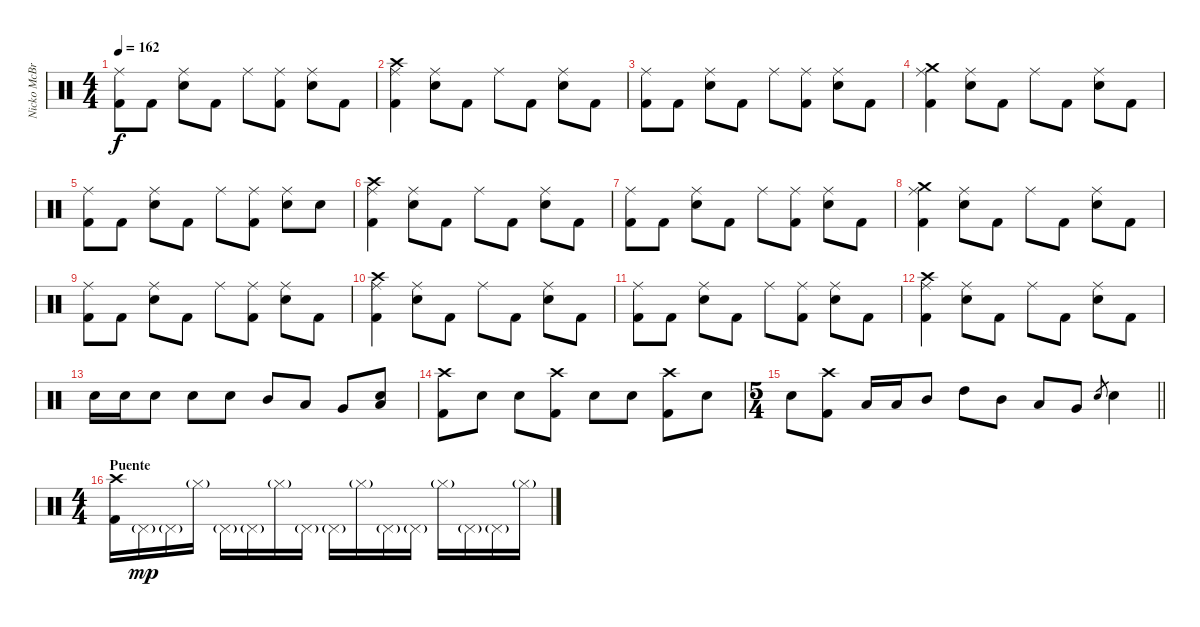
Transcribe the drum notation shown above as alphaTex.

\track ("Nicko McBrain" "Nicko McBr") {instrument percussion}
\staff {score}
\articulation defaults
\ts (4 4)
\tempo 162
\clef neutral
\ks c
("Kick (hit) 2" "Ride (middle)").8{dy f} "Kick (hit) 2".8 ("Electric Snare (hit)" "Ride (middle)").8 "Kick (hit) 2".8 "Ride (middle)".8 ("Kick (hit) 2" "Ride (middle)").8 ("Electric Snare (hit)" "Ride (middle)").8 "Kick (hit) 2".8 |
("Kick (hit) 2" "Ride (middle)" "Crash high (hit)").4 ("Electric Snare (hit)" "Ride (middle)").8 "Kick (hit) 2".8 "Ride (middle)".8 "Kick (hit) 2".8 ("Electric Snare (hit)" "Ride (middle)").8 "Kick (hit) 2".8 |
("Kick (hit) 2" "Ride (middle)").8 "Kick (hit) 2".8 ("Electric Snare (hit)" "Ride (middle)").8 "Kick (hit) 2".8 "Ride (middle)".8 ("Kick (hit) 2" "Ride (middle)").8 ("Electric Snare (hit)" "Ride (middle)").8 "Kick (hit) 2".8 |
("Kick (hit) 2" "Ride (middle)" "Crash medium (hit)").4 ("Electric Snare (hit)" "Ride (middle)").8 "Kick (hit) 2".8 "Ride (middle)".8 "Kick (hit) 2".8 ("Electric Snare (hit)" "Ride (middle)").8 "Kick (hit) 2".8 |
("Kick (hit) 2" "Ride (middle)").8 "Kick (hit) 2".8 ("Electric Snare (hit)" "Ride (middle)").8 "Kick (hit) 2".8 "Ride (middle)".8 ("Kick (hit) 2" "Ride (middle)").8 ("Electric Snare (hit)" "Ride (middle)").8 "Electric Snare (hit)".8 |
("Kick (hit) 2" "Ride (middle)" "Crash high (hit)").4 ("Electric Snare (hit)" "Ride (middle)").8 "Kick (hit) 2".8 "Ride (middle)".8 "Kick (hit) 2".8 ("Electric Snare (hit)" "Ride (middle)").8 "Kick (hit) 2".8 |
("Kick (hit) 2" "Ride (middle)").8 "Kick (hit) 2".8 ("Electric Snare (hit)" "Ride (middle)").8 "Kick (hit) 2".8 "Ride (middle)".8 ("Kick (hit) 2" "Ride (middle)").8 ("Electric Snare (hit)" "Ride (middle)").8 "Kick (hit) 2".8 |
("Kick (hit) 2" "Ride (middle)" "Crash medium (hit)").4 ("Electric Snare (hit)" "Ride (middle)").8 "Kick (hit) 2".8 "Ride (middle)".8 "Kick (hit) 2".8 ("Electric Snare (hit)" "Ride (middle)").8 "Kick (hit) 2".8 |
("Kick (hit) 2" "Ride (middle)").8 "Kick (hit) 2".8 ("Electric Snare (hit)" "Ride (middle)").8 "Kick (hit) 2".8 "Ride (middle)".8 ("Kick (hit) 2" "Ride (middle)").8 ("Electric Snare (hit)" "Ride (middle)").8 "Kick (hit) 2".8 |
("Kick (hit) 2" "Ride (middle)" "Crash high (hit)").4 ("Electric Snare (hit)" "Ride (middle)").8 "Kick (hit) 2".8 "Ride (middle)".8 "Kick (hit) 2".8 ("Electric Snare (hit)" "Ride (middle)").8 "Kick (hit) 2".8 |
("Kick (hit) 2" "Ride (middle)").8 "Kick (hit) 2".8 ("Electric Snare (hit)" "Ride (middle)").8 "Kick (hit) 2".8 "Ride (middle)".8 ("Kick (hit) 2" "Ride (middle)").8 ("Electric Snare (hit)" "Ride (middle)").8 "Kick (hit) 2".8 |
("Kick (hit) 2" "Ride (middle)" "Crash high (hit)").4 ("Electric Snare (hit)" "Ride (middle)").8 "Kick (hit) 2".8 "Ride (middle)".8 "Kick (hit) 2".8 ("Electric Snare (hit)" "Ride (middle)").8 "Kick (hit) 2".8 |
"Electric Snare (hit)".16 "Electric Snare (hit)".16 "Electric Snare (hit)".8 "Electric Snare (hit)".8 "Electric Snare (hit)".8 "Mid Tom (hit)".8 "Low Tom (hit)".8 "Very Low Tom (hit)".8 ("Low Floor Tom (hit)" "Electric Snare (hit)").8 |
("Kick (hit) 2" "Crash high (hit)").8 "Electric Snare (hit)".8 "Electric Snare (hit)".8 ("Kick (hit) 2" "Crash high (hit)").8 "Electric Snare (hit)".8 "Electric Snare (hit)".8 ("Kick (hit) 2" "Crash high (hit)").8 "Electric Snare (hit)".8 |
\ts (5 4)
\barLineRight lightlight "Electric Snare (hit)".8
("Kick (hit) 2" "Crash high (hit)").8 "Low Tom (hit)".16 "Low Tom (hit)".16 "Mid Tom (hit)".8 "High Tom (hit)".8 "Mid Tom (hit)".8 "Low Tom (hit)".8 "Very Low Tom (hit)".8 "Electric Snare (hit)".8{gr} "Electric Snare (hit)".4 |
\ts (4 4)
\section ("" "Puente")
("Kick (hit) 2" "Crash high (hit)").16 "Pedal Hi-Hat (hit)"{g}.16{dy mp} "Pedal Hi-Hat (hit)"{g}.16 "Hi-Hat (closed)"{g}.16 "Pedal Hi-Hat (hit)"{g}.16 "Pedal Hi-Hat (hit)"{g}.16 "Hi-Hat (closed)"{g}.16 "Pedal Hi-Hat (hit)"{g}.16 "Pedal Hi-Hat (hit)"{g}.16 "Hi-Hat (closed)"{g}.16 "Pedal Hi-Hat (hit)"{g}.16 "Pedal Hi-Hat (hit)"{g}.16 "Hi-Hat (closed)"{g}.16 "Pedal Hi-Hat (hit)"{g}.16 "Pedal Hi-Hat (hit)"{g}.16 "Hi-Hat (closed)"{g}.16
